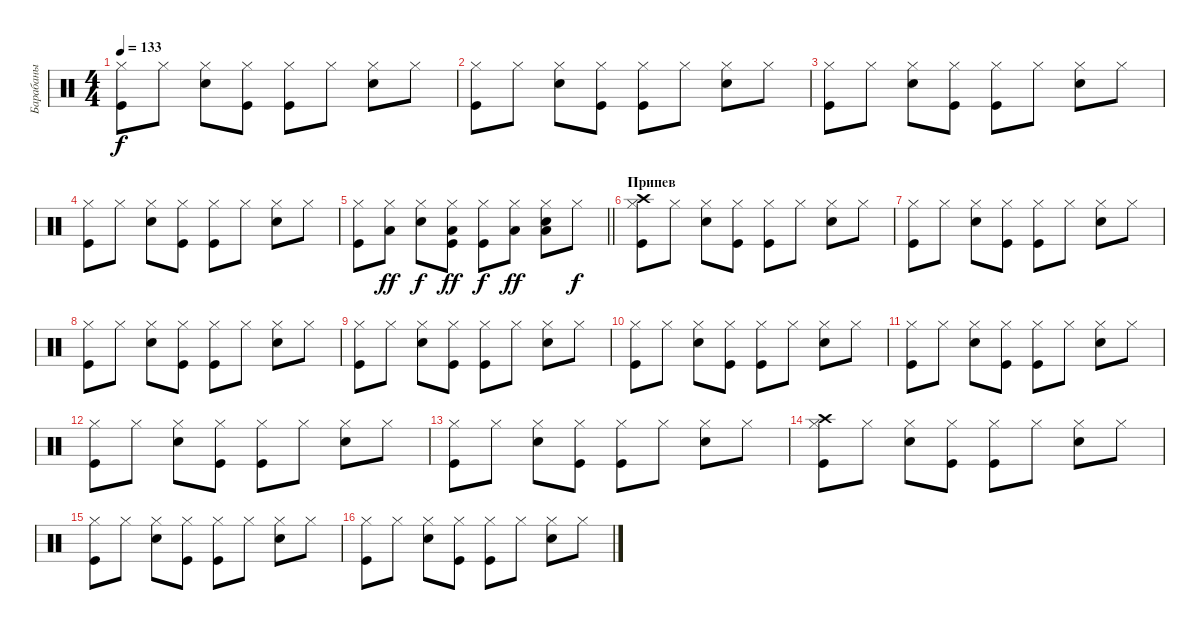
\track ("Барабаны" "Барабаны") {instrument percussion}
\staff {score}
\articulation defaults
\ts (4 4)
\tempo 133
\clef neutral
\ks c
("Kick (hit)" "Hi-Hat (closed)").8{dy f} "Hi-Hat (closed)".8 ("Snare (hit) 2" "Hi-Hat (closed)").8 ("Kick (hit)" "Hi-Hat (closed)").8 ("Kick (hit)" "Hi-Hat (closed)").8 "Hi-Hat (closed)".8 ("Snare (hit) 2" "Hi-Hat (closed)").8 "Hi-Hat (closed)".8 |
("Kick (hit)" "Hi-Hat (closed)").8 "Hi-Hat (closed)".8 ("Snare (hit) 2" "Hi-Hat (closed)").8 ("Kick (hit)" "Hi-Hat (closed)").8 ("Kick (hit)" "Hi-Hat (closed)").8 "Hi-Hat (closed)".8 ("Snare (hit) 2" "Hi-Hat (closed)").8 "Hi-Hat (closed)".8 |
("Kick (hit)" "Hi-Hat (closed)").8 "Hi-Hat (closed)".8 ("Snare (hit) 2" "Hi-Hat (closed)").8 ("Kick (hit)" "Hi-Hat (closed)").8 ("Kick (hit)" "Hi-Hat (closed)").8 "Hi-Hat (closed)".8 ("Snare (hit) 2" "Hi-Hat (closed)").8 "Hi-Hat (closed)".8 |
("Kick (hit)" "Hi-Hat (closed)").8 "Hi-Hat (closed)".8 ("Snare (hit) 2" "Hi-Hat (closed)").8 ("Kick (hit)" "Hi-Hat (closed)").8 ("Kick (hit)" "Hi-Hat (closed)").8 "Hi-Hat (closed)".8 ("Snare (hit) 2" "Hi-Hat (closed)").8 "Hi-Hat (closed)".8 |
\barLineRight lightlight
("Kick (hit)" "Hi-Hat (closed)").8 ("Hi-Hat (closed)" "Low Tom (hit)").8{dy ff} ("Snare (hit) 2" "Hi-Hat (closed)").8{dy f} ("Kick (hit)" "Hi-Hat (closed)" "Low Tom (hit)").8{dy ff} ("Kick (hit)" "Hi-Hat (closed)").8{dy f} ("Hi-Hat (closed)" "Low Floor Tom (hit)").8{dy ff} ("Snare (hit) 2" "Hi-Hat (closed)" "Low Floor Tom (hit)").8 "Hi-Hat (closed)".8{dy f} |
\section ("" "Припев")
("Kick (hit)" "Hi-Hat (closed)" "Crash high (hit)").8 "Hi-Hat (closed)".8 ("Snare (hit) 2" "Hi-Hat (closed)").8 ("Kick (hit)" "Hi-Hat (closed)").8 ("Kick (hit)" "Hi-Hat (closed)").8 "Hi-Hat (closed)".8 ("Snare (hit) 2" "Hi-Hat (closed)").8 "Hi-Hat (closed)".8 |
("Kick (hit)" "Hi-Hat (closed)").8 "Hi-Hat (closed)".8 ("Snare (hit) 2" "Hi-Hat (closed)").8 ("Kick (hit)" "Hi-Hat (closed)").8 ("Kick (hit)" "Hi-Hat (closed)").8 "Hi-Hat (closed)".8 ("Snare (hit) 2" "Hi-Hat (closed)").8 "Hi-Hat (closed)".8 |
("Kick (hit)" "Hi-Hat (closed)").8 "Hi-Hat (closed)".8 ("Snare (hit) 2" "Hi-Hat (closed)").8 ("Kick (hit)" "Hi-Hat (closed)").8 ("Kick (hit)" "Hi-Hat (closed)").8 "Hi-Hat (closed)".8 ("Snare (hit) 2" "Hi-Hat (closed)").8 "Hi-Hat (closed)".8 |
("Kick (hit)" "Hi-Hat (closed)").8 "Hi-Hat (closed)".8 ("Snare (hit) 2" "Hi-Hat (closed)").8 ("Kick (hit)" "Hi-Hat (closed)").8 ("Kick (hit)" "Hi-Hat (closed)").8 "Hi-Hat (closed)".8 ("Snare (hit) 2" "Hi-Hat (closed)").8 "Hi-Hat (closed)".8 |
("Kick (hit)" "Hi-Hat (closed)").8 "Hi-Hat (closed)".8 ("Snare (hit) 2" "Hi-Hat (closed)").8 ("Kick (hit)" "Hi-Hat (closed)").8 ("Kick (hit)" "Hi-Hat (closed)").8 "Hi-Hat (closed)".8 ("Snare (hit) 2" "Hi-Hat (closed)").8 "Hi-Hat (closed)".8 |
("Kick (hit)" "Hi-Hat (closed)").8 "Hi-Hat (closed)".8 ("Snare (hit) 2" "Hi-Hat (closed)").8 ("Kick (hit)" "Hi-Hat (closed)").8 ("Kick (hit)" "Hi-Hat (closed)").8 "Hi-Hat (closed)".8 ("Snare (hit) 2" "Hi-Hat (closed)").8 "Hi-Hat (closed)".8 |
("Kick (hit)" "Hi-Hat (closed)").8 "Hi-Hat (closed)".8 ("Snare (hit) 2" "Hi-Hat (closed)").8 ("Kick (hit)" "Hi-Hat (closed)").8 ("Kick (hit)" "Hi-Hat (closed)").8 "Hi-Hat (closed)".8 ("Snare (hit) 2" "Hi-Hat (closed)").8 "Hi-Hat (closed)".8 |
("Kick (hit)" "Hi-Hat (closed)").8 "Hi-Hat (closed)".8 ("Snare (hit) 2" "Hi-Hat (closed)").8 ("Kick (hit)" "Hi-Hat (closed)").8 ("Kick (hit)" "Hi-Hat (closed)").8 "Hi-Hat (closed)".8 ("Snare (hit) 2" "Hi-Hat (closed)").8 "Hi-Hat (closed)".8 |
("Kick (hit)" "Hi-Hat (closed)" "Crash high (hit)").8 "Hi-Hat (closed)".8 ("Snare (hit) 2" "Hi-Hat (closed)").8 ("Kick (hit)" "Hi-Hat (closed)").8 ("Kick (hit)" "Hi-Hat (closed)").8 "Hi-Hat (closed)".8 ("Snare (hit) 2" "Hi-Hat (closed)").8 "Hi-Hat (closed)".8 |
("Kick (hit)" "Hi-Hat (closed)").8 "Hi-Hat (closed)".8 ("Snare (hit) 2" "Hi-Hat (closed)").8 ("Kick (hit)" "Hi-Hat (closed)").8 ("Kick (hit)" "Hi-Hat (closed)").8 "Hi-Hat (closed)".8 ("Snare (hit) 2" "Hi-Hat (closed)").8 "Hi-Hat (closed)".8 |
("Kick (hit)" "Hi-Hat (closed)").8 "Hi-Hat (closed)".8 ("Snare (hit) 2" "Hi-Hat (closed)").8 ("Kick (hit)" "Hi-Hat (closed)").8 ("Kick (hit)" "Hi-Hat (closed)").8 "Hi-Hat (closed)".8 ("Snare (hit) 2" "Hi-Hat (closed)").8 "Hi-Hat (closed)".8
